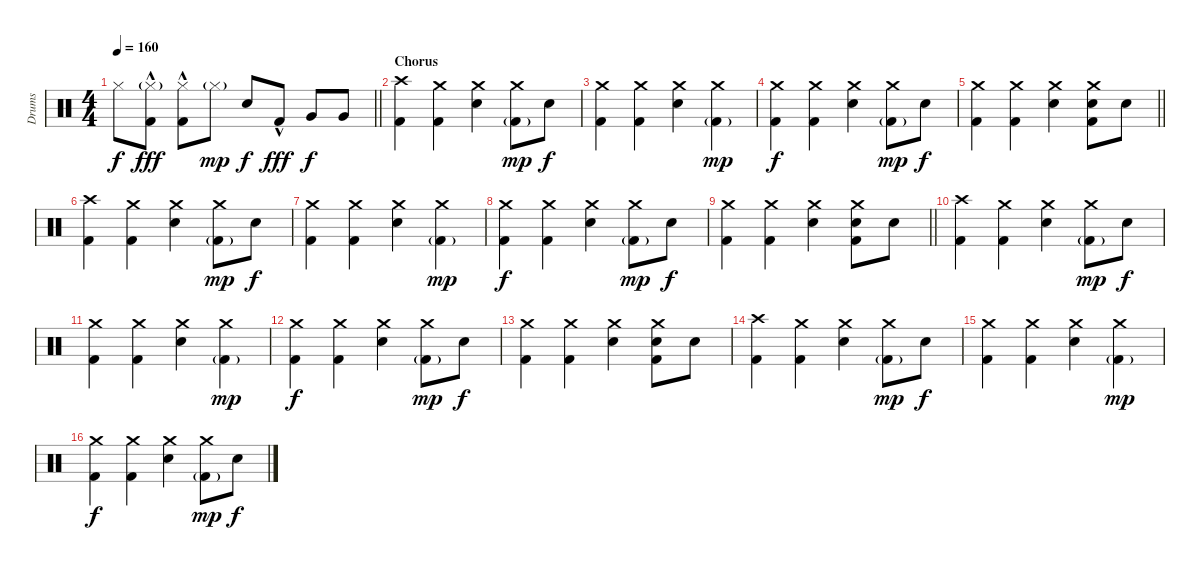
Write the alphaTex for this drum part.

\track ("Drums" "Drums") {instrument percussion}
\staff {score}
\articulation defaults
\ts (4 4)
\tempo 160
\clef neutral
\barLineRight lightlight
\ks c "Hi-Hat (closed)".8{dy f}
("Hi-Hat (closed)"{g} "Kick (hit) 2"{hac}).8{dy fff} ("Hi-Hat (closed)" "Kick (hit) 2"{hac}).8 "Hi-Hat (closed)"{g}.8{dy mp} "Electric Snare (hit)".8{dy f} "Kick (hit) 2"{hac}.8{dy fff} "Very Low Tom (hit)".8{dy f} "Very Low Tom (hit)".8 |
\section ("" "Chorus")
("Crash high (hit)" "Kick (hit) 2").4 ("Crash medium (hit)" "Kick (hit) 2").4 ("Crash medium (hit)" "Electric Snare (hit)").4 ("Crash medium (hit)" "Kick (hit) 2"{g}).8{dy mp} "Electric Snare (hit)".8{dy f} |
("Crash medium (hit)" "Kick (hit) 2").4 ("Crash medium (hit)" "Kick (hit) 2").4 ("Crash medium (hit)" "Electric Snare (hit)").4 ("Crash medium (hit)" "Kick (hit) 2"{g}).4{dy mp} |
("Crash medium (hit)" "Kick (hit) 2").4{dy f} ("Crash medium (hit)" "Kick (hit) 2").4 ("Crash medium (hit)" "Electric Snare (hit)").4 ("Crash medium (hit)" "Kick (hit) 2"{g}).8{dy mp} "Electric Snare (hit)".8{dy f} |
\barLineRight lightlight
("Crash medium (hit)" "Kick (hit) 2").4 ("Crash medium (hit)" "Kick (hit) 2").4 ("Crash medium (hit)" "Electric Snare (hit)").4 ("Crash medium (hit)" "Electric Snare (hit)" "Kick (hit) 2").8 "Electric Snare (hit)".8 |
("Crash high (hit)" "Kick (hit) 2").4 ("Crash medium (hit)" "Kick (hit) 2").4 ("Crash medium (hit)" "Electric Snare (hit)").4 ("Crash medium (hit)" "Kick (hit) 2"{g}).8{dy mp} "Electric Snare (hit)".8{dy f} |
("Crash medium (hit)" "Kick (hit) 2").4 ("Crash medium (hit)" "Kick (hit) 2").4 ("Crash medium (hit)" "Electric Snare (hit)").4 ("Crash medium (hit)" "Kick (hit) 2"{g}).4{dy mp} |
("Crash medium (hit)" "Kick (hit) 2").4{dy f} ("Crash medium (hit)" "Kick (hit) 2").4 ("Crash medium (hit)" "Electric Snare (hit)").4 ("Crash medium (hit)" "Kick (hit) 2"{g}).8{dy mp} "Electric Snare (hit)".8{dy f} |
\barLineRight lightlight
("Crash medium (hit)" "Kick (hit) 2").4 ("Crash medium (hit)" "Kick (hit) 2").4 ("Crash medium (hit)" "Electric Snare (hit)").4 ("Crash medium (hit)" "Electric Snare (hit)" "Kick (hit) 2").8 "Electric Snare (hit)".8 |
("Crash high (hit)" "Kick (hit) 2").4 ("Crash medium (hit)" "Kick (hit) 2").4 ("Crash medium (hit)" "Electric Snare (hit)").4 ("Crash medium (hit)" "Kick (hit) 2"{g}).8{dy mp} "Electric Snare (hit)".8{dy f} |
("Crash medium (hit)" "Kick (hit) 2").4 ("Crash medium (hit)" "Kick (hit) 2").4 ("Crash medium (hit)" "Electric Snare (hit)").4 ("Crash medium (hit)" "Kick (hit) 2"{g}).4{dy mp} |
("Crash medium (hit)" "Kick (hit) 2").4{dy f} ("Crash medium (hit)" "Kick (hit) 2").4 ("Crash medium (hit)" "Electric Snare (hit)").4 ("Crash medium (hit)" "Kick (hit) 2"{g}).8{dy mp} "Electric Snare (hit)".8{dy f} |
("Crash medium (hit)" "Kick (hit) 2").4 ("Crash medium (hit)" "Kick (hit) 2").4 ("Crash medium (hit)" "Electric Snare (hit)").4 ("Crash medium (hit)" "Electric Snare (hit)" "Kick (hit) 2").8 "Electric Snare (hit)".8 |
("Crash high (hit)" "Kick (hit) 2").4 ("Crash medium (hit)" "Kick (hit) 2").4 ("Crash medium (hit)" "Electric Snare (hit)").4 ("Crash medium (hit)" "Kick (hit) 2"{g}).8{dy mp} "Electric Snare (hit)".8{dy f} |
("Crash medium (hit)" "Kick (hit) 2").4 ("Crash medium (hit)" "Kick (hit) 2").4 ("Crash medium (hit)" "Electric Snare (hit)").4 ("Crash medium (hit)" "Kick (hit) 2"{g}).4{dy mp} |
("Crash medium (hit)" "Kick (hit) 2").4{dy f} ("Crash medium (hit)" "Kick (hit) 2").4 ("Crash medium (hit)" "Electric Snare (hit)").4 ("Crash medium (hit)" "Kick (hit) 2"{g}).8{dy mp} "Electric Snare (hit)".8{dy f}
